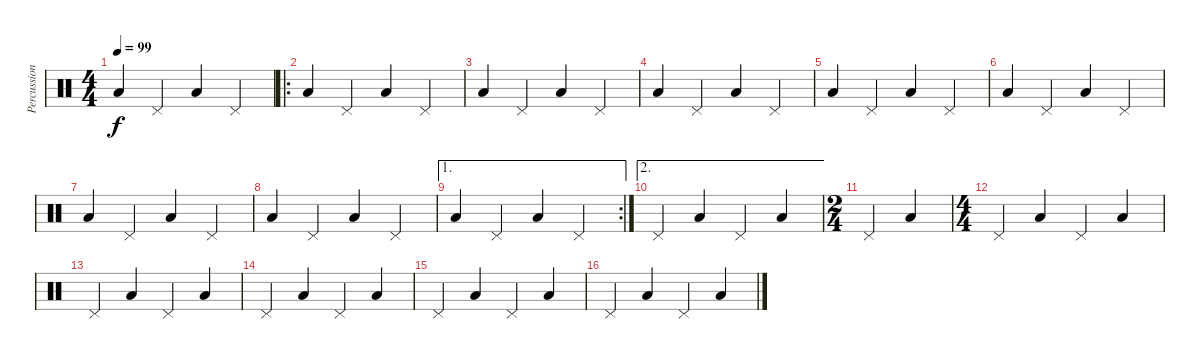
\track ("Percussions" "Percussion") {instrument percussion}
\staff {score}
\articulation defaults
\ts (4 4)
\tempo 99
\clef neutral
\ks c "Low Tom (hit)".4{dy f} "Pedal Hi-Hat (hit)".4 "Low Tom (hit)".4 "Pedal Hi-Hat (hit)".4
|
\ro "Low Tom (hit)".4 "Pedal Hi-Hat (hit)".4 "Low Tom (hit)".4 "Pedal Hi-Hat (hit)".4
|
"Low Tom (hit)".4 "Pedal Hi-Hat (hit)".4 "Low Tom (hit)".4 "Pedal Hi-Hat (hit)".4 |
"Low Tom (hit)".4 "Pedal Hi-Hat (hit)".4 "Low Tom (hit)".4 "Pedal Hi-Hat (hit)".4 |
"Low Tom (hit)".4 "Pedal Hi-Hat (hit)".4 "Low Tom (hit)".4 "Pedal Hi-Hat (hit)".4 |
"Low Tom (hit)".4 "Pedal Hi-Hat (hit)".4 "Low Tom (hit)".4 "Pedal Hi-Hat (hit)".4 |
"Low Tom (hit)".4 "Pedal Hi-Hat (hit)".4 "Low Tom (hit)".4 "Pedal Hi-Hat (hit)".4 |
"Low Tom (hit)".4 "Pedal Hi-Hat (hit)".4 "Low Tom (hit)".4 "Pedal Hi-Hat (hit)".4 |
\ae 1
\rc 2 "Low Tom (hit)".4 "Pedal Hi-Hat (hit)".4 "Low Tom (hit)".4 "Pedal Hi-Hat (hit)".4
|
\ae 2 "Pedal Hi-Hat (hit)".4 "Low Tom (hit)".4 "Pedal Hi-Hat (hit)".4 "Low Tom (hit)".4
|
\ts (2 4)
"Pedal Hi-Hat (hit)".4 "Low Tom (hit)".4 |
\ts (4 4)
"Pedal Hi-Hat (hit)".4 "Low Tom (hit)".4 "Pedal Hi-Hat (hit)".4 "Low Tom (hit)".4 |
"Pedal Hi-Hat (hit)".4 "Low Tom (hit)".4 "Pedal Hi-Hat (hit)".4 "Low Tom (hit)".4 |
"Pedal Hi-Hat (hit)".4 "Low Tom (hit)".4 "Pedal Hi-Hat (hit)".4 "Low Tom (hit)".4 |
"Pedal Hi-Hat (hit)".4 "Low Tom (hit)".4 "Pedal Hi-Hat (hit)".4 "Low Tom (hit)".4 |
"Pedal Hi-Hat (hit)".4 "Low Tom (hit)".4 "Pedal Hi-Hat (hit)".4 "Low Tom (hit)".4
